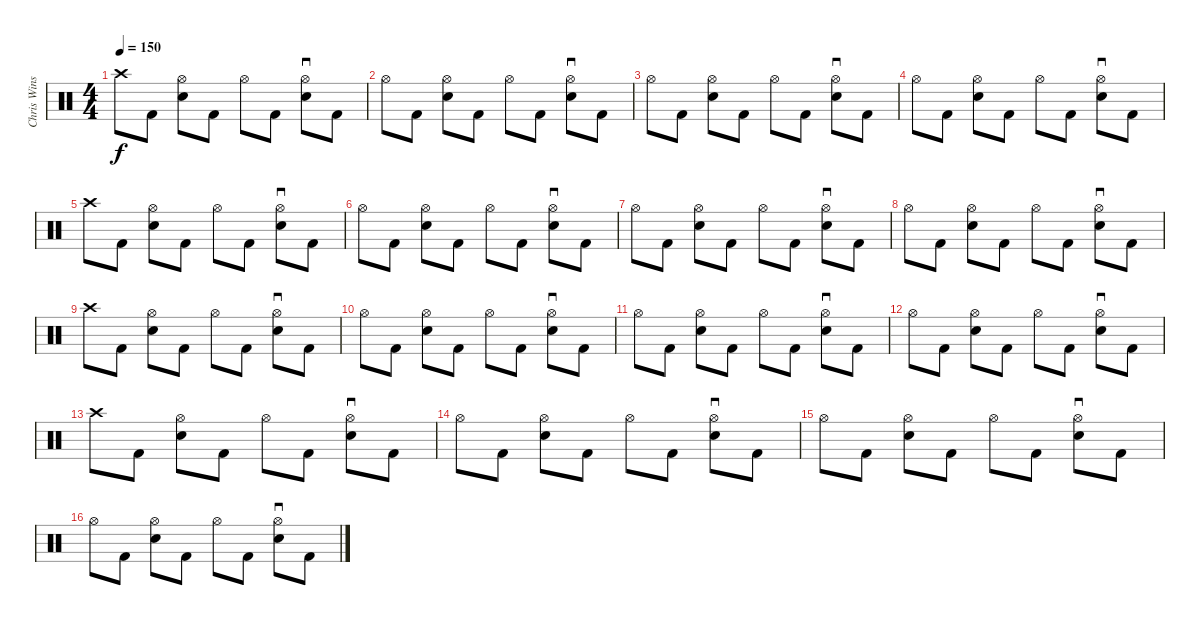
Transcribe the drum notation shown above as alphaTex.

\track ("Chris Winship (Drums)" "Chris Wins") {instrument percussion}
\staff {score}
\articulation defaults
\ts (4 4)
\tempo 150
\clef neutral
\ks c "Crash high (hit)".8{dy f} "Kick (hit) 2".8
("Hi-Hat (open)" "Snare (hit) 2").8 "Kick (hit) 2".8 "Hi-Hat (open)".8 "Kick (hit) 2".8 ("Hi-Hat (open)" "Snare (hit) 2").8{sd} "Kick (hit) 2".8 |
"Hi-Hat (open)".8 "Kick (hit) 2".8 ("Hi-Hat (open)" "Snare (hit) 2").8 "Kick (hit) 2".8 "Hi-Hat (open)".8 "Kick (hit) 2".8 ("Hi-Hat (open)" "Snare (hit) 2").8{sd} "Kick (hit) 2".8 |
"Hi-Hat (open)".8 "Kick (hit) 2".8 ("Hi-Hat (open)" "Snare (hit) 2").8 "Kick (hit) 2".8 "Hi-Hat (open)".8 "Kick (hit) 2".8 ("Hi-Hat (open)" "Snare (hit) 2").8{sd} "Kick (hit) 2".8 |
"Hi-Hat (open)".8 "Kick (hit) 2".8 ("Hi-Hat (open)" "Snare (hit) 2").8 "Kick (hit) 2".8 "Hi-Hat (open)".8 "Kick (hit) 2".8 ("Hi-Hat (open)" "Snare (hit) 2").8{sd} "Kick (hit) 2".8 |
"Crash high (hit)".8 "Kick (hit) 2".8 ("Hi-Hat (open)" "Snare (hit) 2").8 "Kick (hit) 2".8 "Hi-Hat (open)".8 "Kick (hit) 2".8 ("Hi-Hat (open)" "Snare (hit) 2").8{sd} "Kick (hit) 2".8 |
"Hi-Hat (open)".8 "Kick (hit) 2".8 ("Hi-Hat (open)" "Snare (hit) 2").8 "Kick (hit) 2".8 "Hi-Hat (open)".8 "Kick (hit) 2".8 ("Hi-Hat (open)" "Snare (hit) 2").8{sd} "Kick (hit) 2".8 |
"Hi-Hat (open)".8 "Kick (hit) 2".8 ("Hi-Hat (open)" "Snare (hit) 2").8 "Kick (hit) 2".8 "Hi-Hat (open)".8 "Kick (hit) 2".8 ("Hi-Hat (open)" "Snare (hit) 2").8{sd} "Kick (hit) 2".8 |
"Hi-Hat (open)".8 "Kick (hit) 2".8 ("Hi-Hat (open)" "Snare (hit) 2").8 "Kick (hit) 2".8 "Hi-Hat (open)".8 "Kick (hit) 2".8 ("Hi-Hat (open)" "Snare (hit) 2").8{sd} "Kick (hit) 2".8 |
"Crash high (hit)".8 "Kick (hit) 2".8 ("Hi-Hat (open)" "Snare (hit) 2").8 "Kick (hit) 2".8 "Hi-Hat (open)".8 "Kick (hit) 2".8 ("Hi-Hat (open)" "Snare (hit) 2").8{sd} "Kick (hit) 2".8 |
"Hi-Hat (open)".8 "Kick (hit) 2".8 ("Hi-Hat (open)" "Snare (hit) 2").8 "Kick (hit) 2".8 "Hi-Hat (open)".8 "Kick (hit) 2".8 ("Hi-Hat (open)" "Snare (hit) 2").8{sd} "Kick (hit) 2".8 |
"Hi-Hat (open)".8 "Kick (hit) 2".8 ("Hi-Hat (open)" "Snare (hit) 2").8 "Kick (hit) 2".8 "Hi-Hat (open)".8 "Kick (hit) 2".8 ("Hi-Hat (open)" "Snare (hit) 2").8{sd} "Kick (hit) 2".8 |
"Hi-Hat (open)".8 "Kick (hit) 2".8 ("Hi-Hat (open)" "Snare (hit) 2").8 "Kick (hit) 2".8 "Hi-Hat (open)".8 "Kick (hit) 2".8 ("Hi-Hat (open)" "Snare (hit) 2").8{sd} "Kick (hit) 2".8 |
"Crash high (hit)".8 "Kick (hit) 2".8 ("Hi-Hat (open)" "Snare (hit) 2").8 "Kick (hit) 2".8 "Hi-Hat (open)".8 "Kick (hit) 2".8 ("Hi-Hat (open)" "Snare (hit) 2").8{sd} "Kick (hit) 2".8 |
"Hi-Hat (open)".8 "Kick (hit) 2".8 ("Hi-Hat (open)" "Snare (hit) 2").8 "Kick (hit) 2".8 "Hi-Hat (open)".8 "Kick (hit) 2".8 ("Hi-Hat (open)" "Snare (hit) 2").8{sd} "Kick (hit) 2".8 |
"Hi-Hat (open)".8 "Kick (hit) 2".8 ("Hi-Hat (open)" "Snare (hit) 2").8 "Kick (hit) 2".8 "Hi-Hat (open)".8 "Kick (hit) 2".8 ("Hi-Hat (open)" "Snare (hit) 2").8{sd} "Kick (hit) 2".8 |
"Hi-Hat (open)".8 "Kick (hit) 2".8 ("Hi-Hat (open)" "Snare (hit) 2").8 "Kick (hit) 2".8 "Hi-Hat (open)".8 "Kick (hit) 2".8 ("Hi-Hat (open)" "Snare (hit) 2").8{sd} "Kick (hit) 2".8
